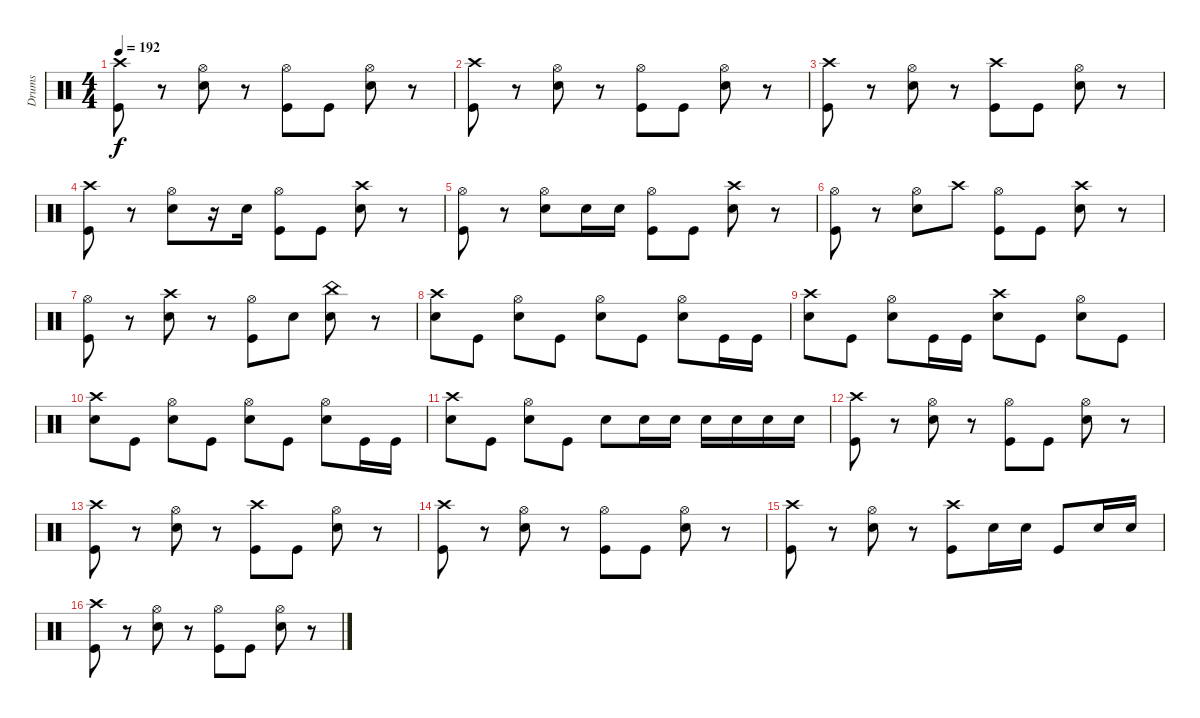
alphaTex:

\track ("Drums" "Drums") {instrument percussion}
\staff {score}
\articulation defaults
\ts (4 4)
\tempo 192
\clef neutral
\ks c
("Kick (hit)" "Crash high (hit)").8{dy f} r.8 ("Electric Snare (hit)" "Hi-Hat (open)").8 r.8 ("Kick (hit)" "Hi-Hat (open)").8 "Kick (hit)".8 ("Electric Snare (hit)" "Hi-Hat (open)").8 r.8 |
("Kick (hit)" "Crash high (hit)").8 r.8 ("Electric Snare (hit)" "Hi-Hat (open)").8 r.8 ("Kick (hit)" "Hi-Hat (open)").8 "Kick (hit)".8 ("Electric Snare (hit)" "Hi-Hat (open)").8 r.8 |
("Kick (hit)" "Crash high (hit)").8 r.8 ("Electric Snare (hit)" "Hi-Hat (open)").8 r.8 ("Kick (hit)" "Crash high (hit)").8 "Kick (hit)".8 ("Electric Snare (hit)" "Hi-Hat (open)").8 r.8 |
("Kick (hit)" "Crash high (hit)").8 r.8 ("Electric Snare (hit)" "Hi-Hat (open)").8 r.16 "Electric Snare (hit)".16 ("Kick (hit)" "Hi-Hat (open)").8 "Kick (hit)".8 ("Electric Snare (hit)" "Crash high (hit)").8 r.8 |
("Kick (hit)" "Hi-Hat (open)").8 r.8 ("Electric Snare (hit)" "Hi-Hat (open)").8 "Electric Snare (hit)".16 "Electric Snare (hit)".16 ("Kick (hit)" "Hi-Hat (open)").8 "Kick (hit)".8 ("Electric Snare (hit)" "Crash high (hit)").8 r.8 |
("Kick (hit)" "Hi-Hat (open)").8 r.8 ("Electric Snare (hit)" "Hi-Hat (open)").8 "Crash high (hit)".8 ("Kick (hit)" "Hi-Hat (open)").8 "Kick (hit)".8 ("Electric Snare (hit)" "Crash high (hit)").8 r.8 |
("Kick (hit)" "Hi-Hat (open)").8 r.8 ("Electric Snare (hit)" "Crash high (hit)").8 r.8 ("Kick (hit)" "Hi-Hat (open)").8 "Electric Snare (hit)".8 ("Electric Snare (hit)" "China (hit)").8 r.8 |
("Electric Snare (hit)" "Crash high (hit)").8 "Kick (hit)".8 ("Electric Snare (hit)" "Hi-Hat (open)").8 "Kick (hit)".8 ("Electric Snare (hit)" "Hi-Hat (open)").8 "Kick (hit)".8 ("Electric Snare (hit)" "Hi-Hat (open)").8 "Kick (hit)".16 "Kick (hit)".16 |
("Electric Snare (hit)" "Crash high (hit)").8 "Kick (hit)".8 ("Electric Snare (hit)" "Hi-Hat (open)").8 "Kick (hit)".16 "Kick (hit)".16 ("Electric Snare (hit)" "Crash high (hit)").8 "Kick (hit)".8 ("Electric Snare (hit)" "Hi-Hat (open)").8 "Kick (hit)".8 |
("Electric Snare (hit)" "Crash high (hit)").8 "Kick (hit)".8 ("Electric Snare (hit)" "Hi-Hat (open)").8 "Kick (hit)".8 ("Electric Snare (hit)" "Hi-Hat (open)").8 "Kick (hit)".8 ("Electric Snare (hit)" "Hi-Hat (open)").8 "Kick (hit)".16 "Kick (hit)".16 |
("Electric Snare (hit)" "Crash high (hit)").8 "Kick (hit)".8 ("Electric Snare (hit)" "Hi-Hat (open)").8 "Kick (hit)".8 "Electric Snare (hit)".8 "Electric Snare (hit)".16 "Electric Snare (hit)".16 "Electric Snare (hit)".16 "Electric Snare (hit)".16 "Electric Snare (hit)".16 "Electric Snare (hit)".16 |
("Kick (hit)" "Crash high (hit)").8 r.8 ("Electric Snare (hit)" "Hi-Hat (open)").8 r.8 ("Kick (hit)" "Hi-Hat (open)").8 "Kick (hit)".8 ("Electric Snare (hit)" "Hi-Hat (open)").8 r.8 |
("Kick (hit)" "Crash high (hit)").8 r.8 ("Electric Snare (hit)" "Hi-Hat (open)").8 r.8 ("Kick (hit)" "Crash high (hit)").8 "Kick (hit)".8 ("Electric Snare (hit)" "Hi-Hat (open)").8 r.8 |
("Kick (hit)" "Crash high (hit)").8 r.8 ("Electric Snare (hit)" "Hi-Hat (open)").8 r.8 ("Kick (hit)" "Hi-Hat (open)").8 "Kick (hit)".8 ("Electric Snare (hit)" "Hi-Hat (open)").8 r.8 |
("Kick (hit)" "Crash high (hit)").8 r.8 ("Electric Snare (hit)" "Hi-Hat (open)").8 r.8 ("Kick (hit)" "Crash high (hit)").8 "Electric Snare (hit)".16 "Electric Snare (hit)".16 "Kick (hit)".8 "Electric Snare (hit)".16 "Electric Snare (hit)".16 |
("Kick (hit)" "Crash high (hit)").8 r.8 ("Electric Snare (hit)" "Hi-Hat (open)").8 r.8 ("Kick (hit)" "Hi-Hat (open)").8 "Kick (hit)".8 ("Electric Snare (hit)" "Hi-Hat (open)").8 r.8
